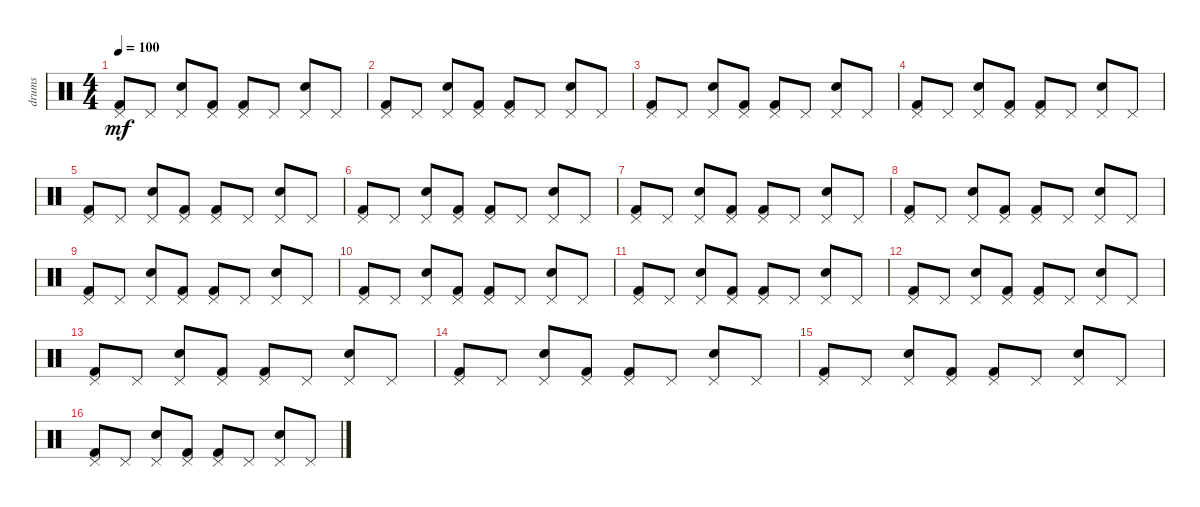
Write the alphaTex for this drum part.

\track ("drums" "drums") {instrument percussion}
\staff {score}
\articulation defaults
\ts (4 4)
\tempo 100
\clef neutral
\ks c
("Kick (hit) 2" "Pedal Hi-Hat (hit)").8{dy mf} "Pedal Hi-Hat (hit)".8 ("Snare (hit) 2" "Pedal Hi-Hat (hit)").8 ("Kick (hit) 2" "Pedal Hi-Hat (hit)").8 ("Kick (hit) 2" "Pedal Hi-Hat (hit)").8 "Pedal Hi-Hat (hit)".8 ("Snare (hit) 2" "Pedal Hi-Hat (hit)").8 "Pedal Hi-Hat (hit)".8 |
("Kick (hit) 2" "Pedal Hi-Hat (hit)").8 "Pedal Hi-Hat (hit)".8 ("Snare (hit) 2" "Pedal Hi-Hat (hit)").8 ("Kick (hit) 2" "Pedal Hi-Hat (hit)").8 ("Kick (hit) 2" "Pedal Hi-Hat (hit)").8 "Pedal Hi-Hat (hit)".8 ("Snare (hit) 2" "Pedal Hi-Hat (hit)").8 "Pedal Hi-Hat (hit)".8 |
("Kick (hit) 2" "Pedal Hi-Hat (hit)").8 "Pedal Hi-Hat (hit)".8 ("Snare (hit) 2" "Pedal Hi-Hat (hit)").8 ("Kick (hit) 2" "Pedal Hi-Hat (hit)").8 ("Kick (hit) 2" "Pedal Hi-Hat (hit)").8 "Pedal Hi-Hat (hit)".8 ("Snare (hit) 2" "Pedal Hi-Hat (hit)").8 "Pedal Hi-Hat (hit)".8 |
("Kick (hit) 2" "Pedal Hi-Hat (hit)").8 "Pedal Hi-Hat (hit)".8 ("Snare (hit) 2" "Pedal Hi-Hat (hit)").8 ("Kick (hit) 2" "Pedal Hi-Hat (hit)").8 ("Kick (hit) 2" "Pedal Hi-Hat (hit)").8 "Pedal Hi-Hat (hit)".8 ("Snare (hit) 2" "Pedal Hi-Hat (hit)").8 "Pedal Hi-Hat (hit)".8 |
("Kick (hit) 2" "Pedal Hi-Hat (hit)").8 "Pedal Hi-Hat (hit)".8 ("Snare (hit) 2" "Pedal Hi-Hat (hit)").8 ("Kick (hit) 2" "Pedal Hi-Hat (hit)").8 ("Kick (hit) 2" "Pedal Hi-Hat (hit)").8 "Pedal Hi-Hat (hit)".8 ("Snare (hit) 2" "Pedal Hi-Hat (hit)").8 "Pedal Hi-Hat (hit)".8 |
("Kick (hit) 2" "Pedal Hi-Hat (hit)").8 "Pedal Hi-Hat (hit)".8 ("Snare (hit) 2" "Pedal Hi-Hat (hit)").8 ("Kick (hit) 2" "Pedal Hi-Hat (hit)").8 ("Kick (hit) 2" "Pedal Hi-Hat (hit)").8 "Pedal Hi-Hat (hit)".8 ("Snare (hit) 2" "Pedal Hi-Hat (hit)").8 "Pedal Hi-Hat (hit)".8 |
("Kick (hit) 2" "Pedal Hi-Hat (hit)").8 "Pedal Hi-Hat (hit)".8 ("Snare (hit) 2" "Pedal Hi-Hat (hit)").8 ("Kick (hit) 2" "Pedal Hi-Hat (hit)").8 ("Kick (hit) 2" "Pedal Hi-Hat (hit)").8 "Pedal Hi-Hat (hit)".8 ("Snare (hit) 2" "Pedal Hi-Hat (hit)").8 "Pedal Hi-Hat (hit)".8 |
("Kick (hit) 2" "Pedal Hi-Hat (hit)").8 "Pedal Hi-Hat (hit)".8 ("Snare (hit) 2" "Pedal Hi-Hat (hit)").8 ("Kick (hit) 2" "Pedal Hi-Hat (hit)").8 ("Kick (hit) 2" "Pedal Hi-Hat (hit)").8 "Pedal Hi-Hat (hit)".8 ("Snare (hit) 2" "Pedal Hi-Hat (hit)").8 "Pedal Hi-Hat (hit)".8 |
("Kick (hit) 2" "Pedal Hi-Hat (hit)").8 "Pedal Hi-Hat (hit)".8 ("Snare (hit) 2" "Pedal Hi-Hat (hit)").8 ("Kick (hit) 2" "Pedal Hi-Hat (hit)").8 ("Kick (hit) 2" "Pedal Hi-Hat (hit)").8 "Pedal Hi-Hat (hit)".8 ("Snare (hit) 2" "Pedal Hi-Hat (hit)").8 "Pedal Hi-Hat (hit)".8 |
("Kick (hit) 2" "Pedal Hi-Hat (hit)").8 "Pedal Hi-Hat (hit)".8 ("Snare (hit) 2" "Pedal Hi-Hat (hit)").8 ("Kick (hit) 2" "Pedal Hi-Hat (hit)").8 ("Kick (hit) 2" "Pedal Hi-Hat (hit)").8 "Pedal Hi-Hat (hit)".8 ("Snare (hit) 2" "Pedal Hi-Hat (hit)").8 "Pedal Hi-Hat (hit)".8 |
("Kick (hit) 2" "Pedal Hi-Hat (hit)").8 "Pedal Hi-Hat (hit)".8 ("Snare (hit) 2" "Pedal Hi-Hat (hit)").8 ("Kick (hit) 2" "Pedal Hi-Hat (hit)").8 ("Kick (hit) 2" "Pedal Hi-Hat (hit)").8 "Pedal Hi-Hat (hit)".8 ("Snare (hit) 2" "Pedal Hi-Hat (hit)").8 "Pedal Hi-Hat (hit)".8 |
("Kick (hit) 2" "Pedal Hi-Hat (hit)").8 "Pedal Hi-Hat (hit)".8 ("Snare (hit) 2" "Pedal Hi-Hat (hit)").8 ("Kick (hit) 2" "Pedal Hi-Hat (hit)").8 ("Kick (hit) 2" "Pedal Hi-Hat (hit)").8 "Pedal Hi-Hat (hit)".8 ("Snare (hit) 2" "Pedal Hi-Hat (hit)").8 "Pedal Hi-Hat (hit)".8 |
("Kick (hit) 2" "Pedal Hi-Hat (hit)").8 "Pedal Hi-Hat (hit)".8 ("Snare (hit) 2" "Pedal Hi-Hat (hit)").8 ("Kick (hit) 2" "Pedal Hi-Hat (hit)").8 ("Kick (hit) 2" "Pedal Hi-Hat (hit)").8 "Pedal Hi-Hat (hit)".8 ("Snare (hit) 2" "Pedal Hi-Hat (hit)").8 "Pedal Hi-Hat (hit)".8 |
("Kick (hit) 2" "Pedal Hi-Hat (hit)").8 "Pedal Hi-Hat (hit)".8 ("Snare (hit) 2" "Pedal Hi-Hat (hit)").8 ("Kick (hit) 2" "Pedal Hi-Hat (hit)").8 ("Kick (hit) 2" "Pedal Hi-Hat (hit)").8 "Pedal Hi-Hat (hit)".8 ("Snare (hit) 2" "Pedal Hi-Hat (hit)").8 "Pedal Hi-Hat (hit)".8 |
("Kick (hit) 2" "Pedal Hi-Hat (hit)").8 "Pedal Hi-Hat (hit)".8 ("Snare (hit) 2" "Pedal Hi-Hat (hit)").8 ("Kick (hit) 2" "Pedal Hi-Hat (hit)").8 ("Kick (hit) 2" "Pedal Hi-Hat (hit)").8 "Pedal Hi-Hat (hit)".8 ("Snare (hit) 2" "Pedal Hi-Hat (hit)").8 "Pedal Hi-Hat (hit)".8 |
("Kick (hit) 2" "Pedal Hi-Hat (hit)").8 "Pedal Hi-Hat (hit)".8 ("Snare (hit) 2" "Pedal Hi-Hat (hit)").8 ("Kick (hit) 2" "Pedal Hi-Hat (hit)").8 ("Kick (hit) 2" "Pedal Hi-Hat (hit)").8 "Pedal Hi-Hat (hit)".8 ("Snare (hit) 2" "Pedal Hi-Hat (hit)").8 "Pedal Hi-Hat (hit)".8
